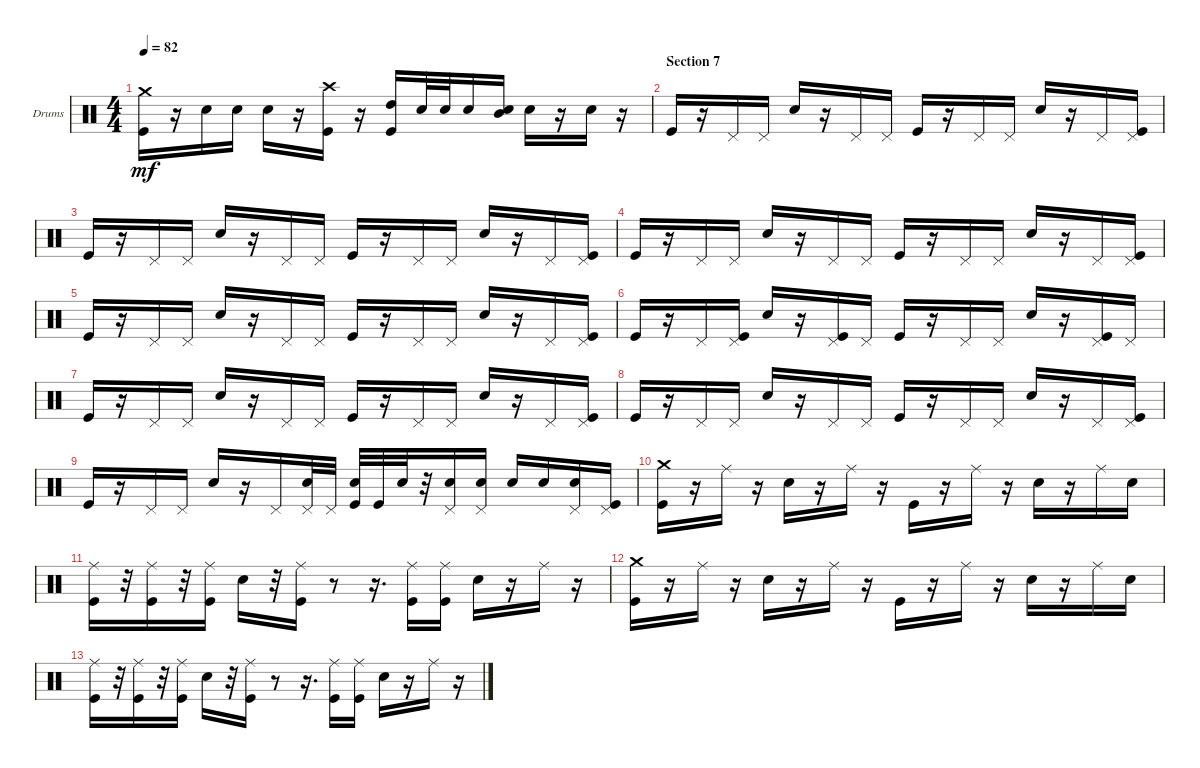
\bracketExtendMode groupsimilarinstruments
\firstSystemTrackNameOrientation horizontal
\otherSystemsTrackNameOrientation horizontal
\track ("Drumkit" "Drums") {instrument percussion}
\staff {score}
\articulation defaults
\ts (4 4)
\tempo 82
\clef neutral
\ks aminor
("Kick (hit)" "Crash medium (hit)").16{dy mf} r.16 "Snare (hit) 2".16 "Snare (hit) 2".16 "Snare (hit) 2".16 r.16 ("Kick (hit)" "Crash high (hit)").16 r.16 ("Kick (hit)" "High Tom (hit)").16 "Snare (hit) 2".32 "Snare (hit) 2".32 "Snare (hit) 2".16 ("Snare (hit) 2" "Mid Tom (hit)").16 "Snare (hit) 2".16 r.16 "Snare (hit) 2".16 r.16 |
\section ("" "Section 7")
"Kick (hit)".16 r.16 "Pedal Hi-Hat (hit)".16 "Pedal Hi-Hat (hit)".16 "Snare (hit) 2".16 r.16 "Pedal Hi-Hat (hit)".16 "Pedal Hi-Hat (hit)".16 "Kick (hit)".16 r.16 "Pedal Hi-Hat (hit)".16 "Pedal Hi-Hat (hit)".16 "Snare (hit) 2".16 r.16 "Pedal Hi-Hat (hit)".16 ("Kick (hit)" "Pedal Hi-Hat (hit)").16 |
"Kick (hit)".16 r.16 "Pedal Hi-Hat (hit)".16 "Pedal Hi-Hat (hit)".16 "Snare (hit) 2".16 r.16 "Pedal Hi-Hat (hit)".16 "Pedal Hi-Hat (hit)".16 "Kick (hit)".16 r.16 "Pedal Hi-Hat (hit)".16 "Pedal Hi-Hat (hit)".16 "Snare (hit) 2".16 r.16 "Pedal Hi-Hat (hit)".16 ("Kick (hit)" "Pedal Hi-Hat (hit)").16 |
"Kick (hit)".16 r.16 "Pedal Hi-Hat (hit)".16 "Pedal Hi-Hat (hit)".16 "Snare (hit) 2".16 r.16 "Pedal Hi-Hat (hit)".16 "Pedal Hi-Hat (hit)".16 "Kick (hit)".16 r.16 "Pedal Hi-Hat (hit)".16 "Pedal Hi-Hat (hit)".16 "Snare (hit) 2".16 r.16 "Pedal Hi-Hat (hit)".16 ("Kick (hit)" "Pedal Hi-Hat (hit)").16 |
"Kick (hit)".16 r.16 "Pedal Hi-Hat (hit)".16 "Pedal Hi-Hat (hit)".16 "Snare (hit) 2".16 r.16 "Pedal Hi-Hat (hit)".16 "Pedal Hi-Hat (hit)".16 "Kick (hit)".16 r.16 "Pedal Hi-Hat (hit)".16 "Pedal Hi-Hat (hit)".16 "Snare (hit) 2".16 r.16 "Pedal Hi-Hat (hit)".16 ("Kick (hit)" "Pedal Hi-Hat (hit)").16 |
"Kick (hit)".16 r.16 "Pedal Hi-Hat (hit)".16 ("Kick (hit)" "Pedal Hi-Hat (hit)").16 "Snare (hit) 2".16 r.16 ("Kick (hit)" "Pedal Hi-Hat (hit)").16 "Pedal Hi-Hat (hit)".16 "Kick (hit)".16 r.16 "Pedal Hi-Hat (hit)".16 "Pedal Hi-Hat (hit)".16 "Snare (hit) 2".16 r.16 ("Kick (hit)" "Pedal Hi-Hat (hit)").16 "Pedal Hi-Hat (hit)".16 |
"Kick (hit)".16 r.16 "Pedal Hi-Hat (hit)".16 "Pedal Hi-Hat (hit)".16 "Snare (hit) 2".16 r.16 "Pedal Hi-Hat (hit)".16 "Pedal Hi-Hat (hit)".16 "Kick (hit)".16 r.16 "Pedal Hi-Hat (hit)".16 "Pedal Hi-Hat (hit)".16 "Snare (hit) 2".16 r.16 "Pedal Hi-Hat (hit)".16 ("Kick (hit)" "Pedal Hi-Hat (hit)").16 |
"Kick (hit)".16 r.16 "Pedal Hi-Hat (hit)".16 "Pedal Hi-Hat (hit)".16 "Snare (hit) 2".16 r.16 "Pedal Hi-Hat (hit)".16 "Pedal Hi-Hat (hit)".16 "Kick (hit)".16 r.16 "Pedal Hi-Hat (hit)".16 "Pedal Hi-Hat (hit)".16 "Snare (hit) 2".16 r.16 "Pedal Hi-Hat (hit)".16 ("Kick (hit)" "Pedal Hi-Hat (hit)").16 |
"Kick (hit)".16 r.16 "Pedal Hi-Hat (hit)".16 "Pedal Hi-Hat (hit)".16 "Snare (hit) 2".16 r.16 "Pedal Hi-Hat (hit)".16 ("Snare (hit) 2" "Pedal Hi-Hat (hit)").32 "Pedal Hi-Hat (hit)".32 ("Snare (hit) 2" "Kick (hit)").32 "Kick (hit)".32 "Snare (hit) 2".32 r.32 ("Snare (hit) 2" "Pedal Hi-Hat (hit)").16 ("Snare (hit) 2" "Pedal Hi-Hat (hit)").16 "Snare (hit) 2".16 "Snare (hit) 2".16 ("Snare (hit) 2" "Pedal Hi-Hat (hit)").16 ("Kick (hit)" "Pedal Hi-Hat (hit)").16 |
("Kick (hit)" "Crash medium (hit)").16 r.16 "Ride (middle)".16 r.16 "Snare (hit) 2".16 r.16 "Ride (middle)".16 r.16 "Kick (hit)".16 r.16 "Ride (middle)".16 r.16 "Snare (hit) 2".16 r.16 "Ride (middle)".16 "Snare (hit) 2".16 |
("Kick (hit)" "Ride (middle)").16 r.32 ("Kick (hit)" "Ride (middle)").16 r.32 ("Kick (hit)" "Ride (middle)").16 "Snare (hit) 2".16 r.32 ("Kick (hit)" "Ride (middle)").16 r.8 r.16{d} ("Kick (hit)" "Ride (middle)").16 ("Kick (hit)" "Ride (middle)").16 "Snare (hit) 2".16 r.16 "Ride (middle)".16 r.16 |
("Kick (hit)" "Crash medium (hit)").16 r.16 "Ride (middle)".16 r.16 "Snare (hit) 2".16 r.16 "Ride (middle)".16 r.16 "Kick (hit)".16 r.16 "Ride (middle)".16 r.16 "Snare (hit) 2".16 r.16 "Ride (middle)".16 "Snare (hit) 2".16 |
("Kick (hit)" "Ride (middle)").16 r.32 ("Kick (hit)" "Ride (middle)").16 r.32 ("Kick (hit)" "Ride (middle)").16 "Snare (hit) 2".16 r.32 ("Kick (hit)" "Ride (middle)").16 r.8 r.16{d} ("Kick (hit)" "Ride (middle)").16 ("Kick (hit)" "Ride (middle)").16 "Snare (hit) 2".16 r.16 "Ride (middle)".16 r.16
